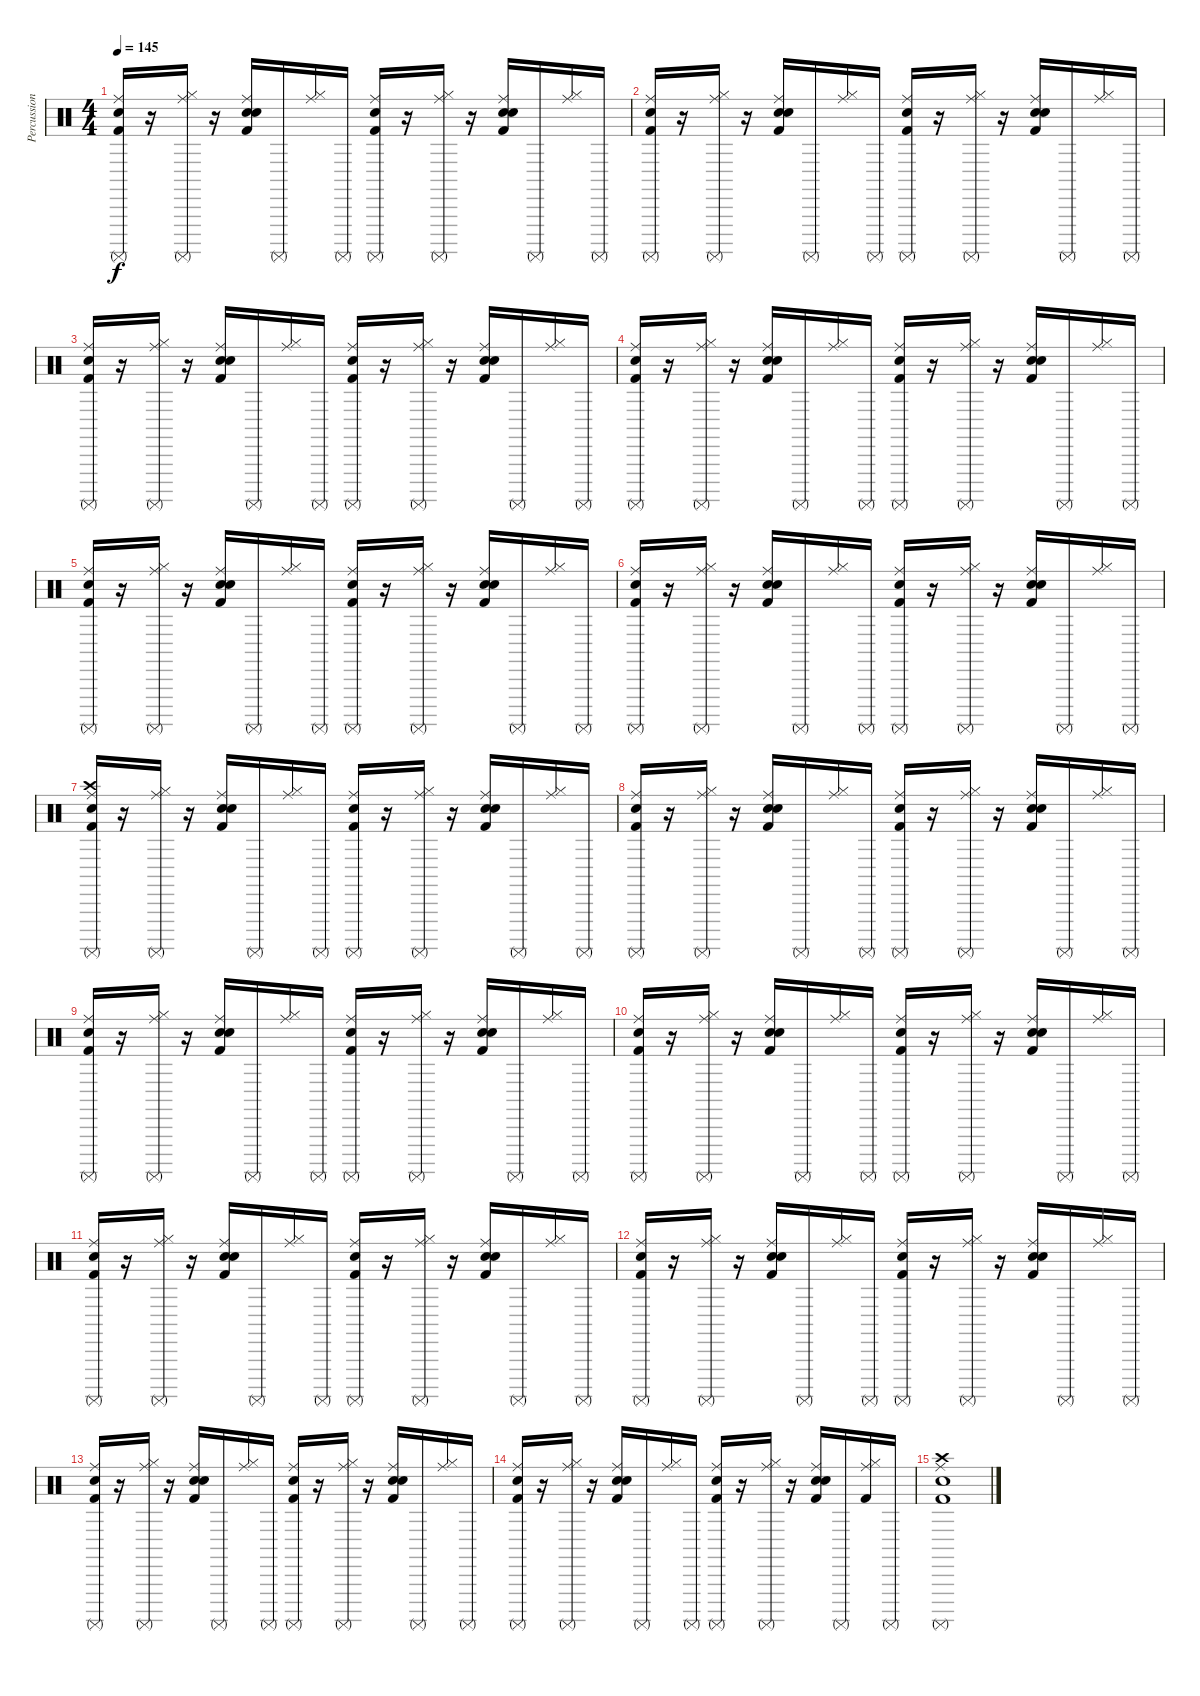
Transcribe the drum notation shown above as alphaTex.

\track ("Percussions" "Percussion") {instrument percussion}
\staff {score}
\articulation defaults
\ts (4 4)
\tempo 145
\clef neutral
\ks c
("Kick (hit) 2" "Snare (hit) 2" "Surdo (mute)" "Ride (middle)").16{dy f} r.16 ("Hi-Hat (closed)" "Surdo (mute)" "Ride (middle)").16 r.16 ("Kick (hit) 2" "Electric Snare (hit)" "Hand Clap (hit)" "Ride (middle)").16 "Surdo (mute)".16 ("Hi-Hat (closed)" "Ride (middle)").16 "Surdo (mute)".16 ("Kick (hit) 2" "Snare (hit) 2" "Surdo (mute)" "Ride (middle)").16 r.16 ("Hi-Hat (closed)" "Surdo (mute)" "Ride (middle)").16 r.16 ("Kick (hit) 2" "Electric Snare (hit)" "Hand Clap (hit)" "Ride (middle)").16 "Surdo (mute)".16 ("Hi-Hat (closed)" "Ride (middle)").16 "Surdo (mute)".16 |
("Kick (hit) 2" "Snare (hit) 2" "Surdo (mute)" "Ride (middle)").16 r.16 ("Hi-Hat (closed)" "Surdo (mute)" "Ride (middle)").16 r.16 ("Kick (hit) 2" "Electric Snare (hit)" "Hand Clap (hit)" "Ride (middle)").16 "Surdo (mute)".16 ("Hi-Hat (closed)" "Ride (middle)").16 "Surdo (mute)".16 ("Kick (hit) 2" "Snare (hit) 2" "Surdo (mute)" "Ride (middle)").16 r.16 ("Hi-Hat (closed)" "Surdo (mute)" "Ride (middle)").16 r.16 ("Kick (hit) 2" "Electric Snare (hit)" "Hand Clap (hit)" "Ride (middle)").16 "Surdo (mute)".16 ("Hi-Hat (closed)" "Ride (middle)").16 "Surdo (mute)".16 |
("Kick (hit) 2" "Snare (hit) 2" "Surdo (mute)" "Ride (middle)").16 r.16 ("Hi-Hat (closed)" "Surdo (mute)" "Ride (middle)").16 r.16 ("Kick (hit) 2" "Electric Snare (hit)" "Hand Clap (hit)" "Ride (middle)").16 "Surdo (mute)".16 ("Hi-Hat (closed)" "Ride (middle)").16 "Surdo (mute)".16 ("Kick (hit) 2" "Snare (hit) 2" "Surdo (mute)" "Ride (middle)").16 r.16 ("Hi-Hat (closed)" "Surdo (mute)" "Ride (middle)").16 r.16 ("Kick (hit) 2" "Electric Snare (hit)" "Hand Clap (hit)" "Ride (middle)").16 "Surdo (mute)".16 ("Hi-Hat (closed)" "Ride (middle)").16 "Surdo (mute)".16 |
("Kick (hit) 2" "Snare (hit) 2" "Surdo (mute)" "Ride (middle)").16 r.16 ("Hi-Hat (closed)" "Surdo (mute)" "Ride (middle)").16 r.16 ("Kick (hit) 2" "Electric Snare (hit)" "Hand Clap (hit)" "Ride (middle)").16 "Surdo (mute)".16 ("Hi-Hat (closed)" "Ride (middle)").16 "Surdo (mute)".16 ("Kick (hit) 2" "Snare (hit) 2" "Surdo (mute)" "Ride (middle)").16 r.16 ("Hi-Hat (closed)" "Surdo (mute)" "Ride (middle)").16 r.16 ("Kick (hit) 2" "Electric Snare (hit)" "Hand Clap (hit)" "Ride (middle)").16 "Surdo (mute)".16 ("Hi-Hat (closed)" "Ride (middle)").16 "Surdo (mute)".16 |
("Kick (hit) 2" "Snare (hit) 2" "Surdo (mute)" "Ride (middle)").16 r.16 ("Hi-Hat (closed)" "Surdo (mute)" "Ride (middle)").16 r.16 ("Kick (hit) 2" "Electric Snare (hit)" "Hand Clap (hit)" "Ride (middle)").16 "Surdo (mute)".16 ("Hi-Hat (closed)" "Ride (middle)").16 "Surdo (mute)".16 ("Kick (hit) 2" "Snare (hit) 2" "Surdo (mute)" "Ride (middle)").16 r.16 ("Hi-Hat (closed)" "Surdo (mute)" "Ride (middle)").16 r.16 ("Kick (hit) 2" "Electric Snare (hit)" "Hand Clap (hit)" "Ride (middle)").16 "Surdo (mute)".16 ("Hi-Hat (closed)" "Ride (middle)").16 "Surdo (mute)".16 |
("Kick (hit) 2" "Snare (hit) 2" "Surdo (mute)" "Ride (middle)").16 r.16 ("Hi-Hat (closed)" "Surdo (mute)" "Ride (middle)").16 r.16 ("Kick (hit) 2" "Electric Snare (hit)" "Hand Clap (hit)" "Ride (middle)").16 "Surdo (mute)".16 ("Hi-Hat (closed)" "Ride (middle)").16 "Surdo (mute)".16 ("Kick (hit) 2" "Snare (hit) 2" "Surdo (mute)" "Ride (middle)").16 r.16 ("Hi-Hat (closed)" "Surdo (mute)" "Ride (middle)").16 r.16 ("Kick (hit) 2" "Electric Snare (hit)" "Hand Clap (hit)" "Ride (middle)").16 "Surdo (mute)".16 ("Hi-Hat (closed)" "Ride (middle)").16 "Surdo (mute)".16 |
("Kick (hit) 2" "Snare (hit) 2" "Surdo (mute)" "Crash high (hit)" "Ride (middle)").16 r.16 ("Hi-Hat (closed)" "Surdo (mute)" "Ride (middle)").16 r.16 ("Kick (hit) 2" "Electric Snare (hit)" "Hand Clap (hit)" "Ride (middle)").16 "Surdo (mute)".16 ("Hi-Hat (closed)" "Ride (middle)").16 "Surdo (mute)".16 ("Kick (hit) 2" "Snare (hit) 2" "Surdo (mute)" "Ride (middle)").16 r.16 ("Hi-Hat (closed)" "Surdo (mute)" "Ride (middle)").16 r.16 ("Kick (hit) 2" "Electric Snare (hit)" "Hand Clap (hit)" "Ride (middle)").16 "Surdo (mute)".16 ("Hi-Hat (closed)" "Ride (middle)").16 "Surdo (mute)".16 |
("Kick (hit) 2" "Snare (hit) 2" "Surdo (mute)" "Ride (middle)").16 r.16 ("Hi-Hat (closed)" "Surdo (mute)" "Ride (middle)").16 r.16 ("Kick (hit) 2" "Electric Snare (hit)" "Hand Clap (hit)" "Ride (middle)").16 "Surdo (mute)".16 ("Hi-Hat (closed)" "Ride (middle)").16 "Surdo (mute)".16 ("Kick (hit) 2" "Snare (hit) 2" "Surdo (mute)" "Ride (middle)").16 r.16 ("Hi-Hat (closed)" "Surdo (mute)" "Ride (middle)").16 r.16 ("Kick (hit) 2" "Electric Snare (hit)" "Hand Clap (hit)" "Ride (middle)").16 "Surdo (mute)".16 ("Hi-Hat (closed)" "Ride (middle)").16 "Surdo (mute)".16 |
("Kick (hit) 2" "Snare (hit) 2" "Surdo (mute)" "Ride (middle)").16 r.16 ("Hi-Hat (closed)" "Surdo (mute)" "Ride (middle)").16 r.16 ("Kick (hit) 2" "Electric Snare (hit)" "Hand Clap (hit)" "Ride (middle)").16 "Surdo (mute)".16 ("Hi-Hat (closed)" "Ride (middle)").16 "Surdo (mute)".16 ("Kick (hit) 2" "Snare (hit) 2" "Surdo (mute)" "Ride (middle)").16 r.16 ("Hi-Hat (closed)" "Surdo (mute)" "Ride (middle)").16 r.16 ("Kick (hit) 2" "Electric Snare (hit)" "Hand Clap (hit)" "Ride (middle)").16 "Surdo (mute)".16 ("Hi-Hat (closed)" "Ride (middle)").16 "Surdo (mute)".16 |
("Kick (hit) 2" "Snare (hit) 2" "Surdo (mute)" "Ride (middle)").16 r.16 ("Hi-Hat (closed)" "Surdo (mute)" "Ride (middle)").16 r.16 ("Kick (hit) 2" "Electric Snare (hit)" "Hand Clap (hit)" "Ride (middle)").16 "Surdo (mute)".16 ("Hi-Hat (closed)" "Ride (middle)").16 "Surdo (mute)".16 ("Kick (hit) 2" "Snare (hit) 2" "Surdo (mute)" "Ride (middle)").16 r.16 ("Hi-Hat (closed)" "Surdo (mute)" "Ride (middle)").16 r.16 ("Kick (hit) 2" "Electric Snare (hit)" "Hand Clap (hit)" "Ride (middle)").16 "Surdo (mute)".16 ("Hi-Hat (closed)" "Ride (middle)").16 "Surdo (mute)".16 |
("Kick (hit) 2" "Snare (hit) 2" "Surdo (mute)" "Ride (middle)").16 r.16 ("Hi-Hat (closed)" "Surdo (mute)" "Ride (middle)").16 r.16 ("Kick (hit) 2" "Electric Snare (hit)" "Hand Clap (hit)" "Ride (middle)").16 "Surdo (mute)".16 ("Hi-Hat (closed)" "Ride (middle)").16 "Surdo (mute)".16 ("Kick (hit) 2" "Snare (hit) 2" "Surdo (mute)" "Ride (middle)").16 r.16 ("Hi-Hat (closed)" "Surdo (mute)" "Ride (middle)").16 r.16 ("Kick (hit) 2" "Electric Snare (hit)" "Hand Clap (hit)" "Ride (middle)").16 "Surdo (mute)".16 ("Hi-Hat (closed)" "Ride (middle)").16 "Surdo (mute)".16 |
("Kick (hit) 2" "Snare (hit) 2" "Surdo (mute)" "Ride (middle)").16 r.16 ("Hi-Hat (closed)" "Surdo (mute)" "Ride (middle)").16 r.16 ("Kick (hit) 2" "Electric Snare (hit)" "Hand Clap (hit)" "Ride (middle)").16 "Surdo (mute)".16 ("Hi-Hat (closed)" "Ride (middle)").16 "Surdo (mute)".16 ("Kick (hit) 2" "Snare (hit) 2" "Surdo (mute)" "Ride (middle)").16 r.16 ("Hi-Hat (closed)" "Surdo (mute)" "Ride (middle)").16 r.16 ("Kick (hit) 2" "Electric Snare (hit)" "Hand Clap (hit)" "Ride (middle)").16 "Surdo (mute)".16 ("Hi-Hat (closed)" "Ride (middle)").16 "Surdo (mute)".16 |
("Kick (hit) 2" "Snare (hit) 2" "Surdo (mute)" "Ride (middle)").16 r.16 ("Hi-Hat (closed)" "Surdo (mute)" "Ride (middle)").16 r.16 ("Kick (hit) 2" "Electric Snare (hit)" "Hand Clap (hit)" "Ride (middle)").16 "Surdo (mute)".16 ("Hi-Hat (closed)" "Ride (middle)").16 "Surdo (mute)".16 ("Kick (hit) 2" "Snare (hit) 2" "Surdo (mute)" "Ride (middle)").16 r.16 ("Hi-Hat (closed)" "Surdo (mute)" "Ride (middle)").16 r.16 ("Kick (hit) 2" "Electric Snare (hit)" "Hand Clap (hit)" "Ride (middle)").16 "Surdo (mute)".16 ("Hi-Hat (closed)" "Ride (middle)").16 "Surdo (mute)".16 |
("Kick (hit) 2" "Snare (hit) 2" "Surdo (mute)" "Ride (middle)").16 r.16 ("Hi-Hat (closed)" "Surdo (mute)" "Ride (middle)").16 r.16 ("Kick (hit) 2" "Snare (hit) 2" "Hand Clap (hit)" "Ride (middle)").16 "Surdo (mute)".16 ("Hi-Hat (closed)" "Ride (middle)").16 "Surdo (mute)".16 ("Kick (hit) 2" "Snare (hit) 2" "Surdo (mute)" "Ride (middle)").16 r.16 ("Hi-Hat (closed)" "Surdo (mute)" "Ride (middle)").16 r.16 ("Kick (hit) 2" "Snare (hit) 2" "Hand Clap (hit)" "Ride (middle)").16 "Surdo (mute)".16 ("Hi-Hat (closed)" "Kick (hit) 2" "Ride (middle)").16 "Surdo (mute)".16 |
("Kick (hit) 2" "Snare (hit) 2" "Surdo (mute)" "Crash high (hit)" "Ride (middle)").1
